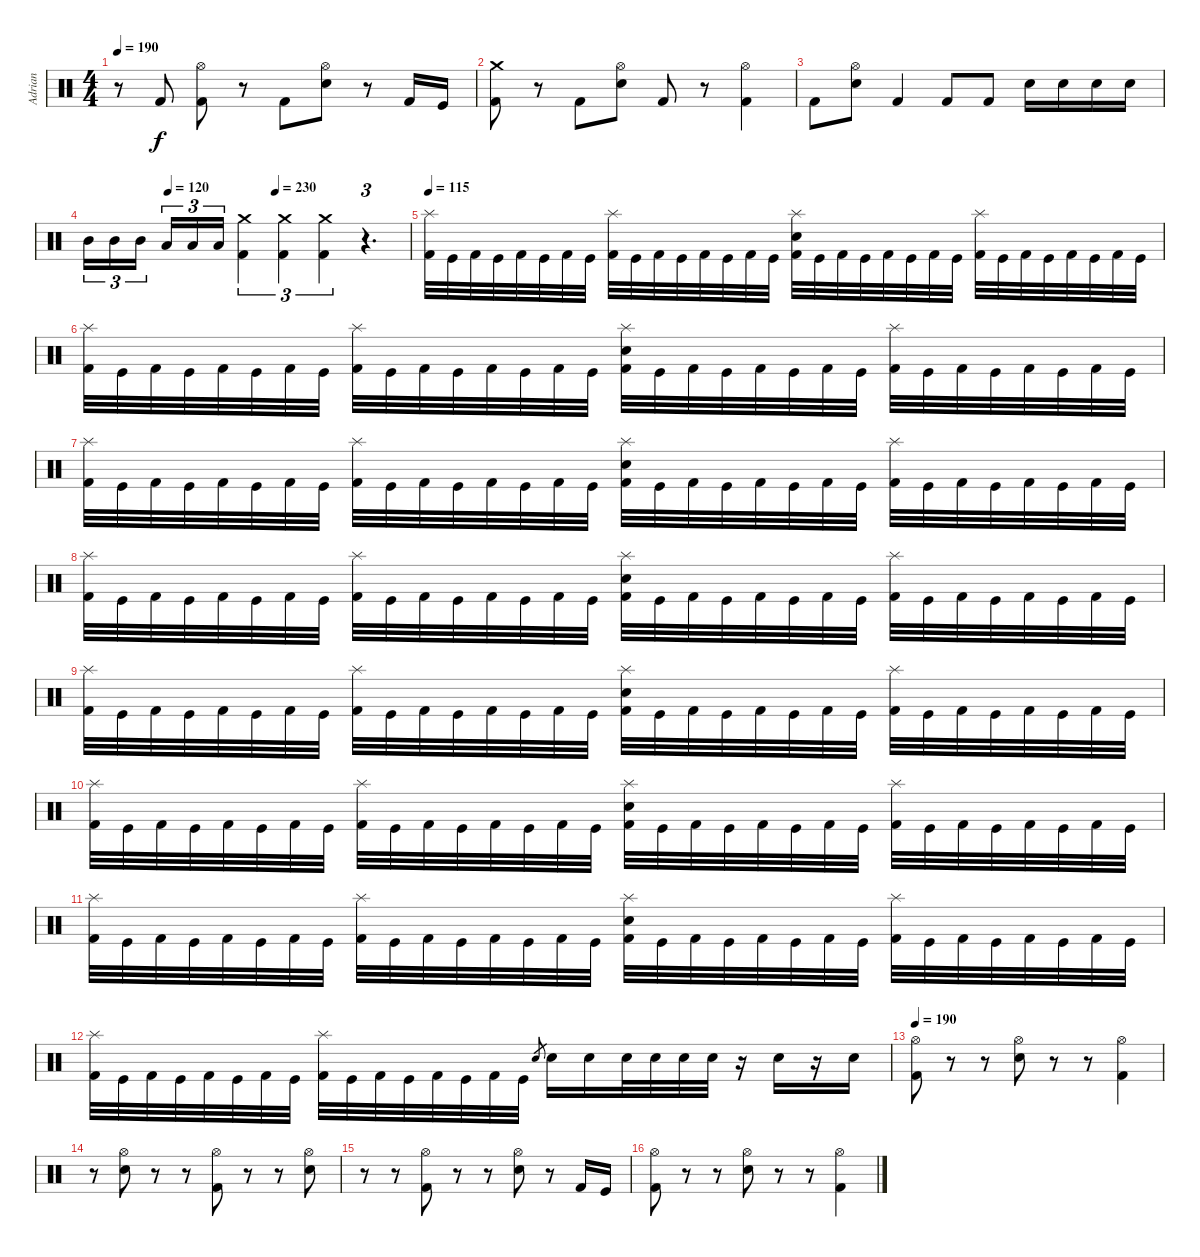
\track ("Adrian" "Adrian") {instrument percussion}
\staff {score}
\articulation defaults
\ts (4 4)
\tempo 190
\clef neutral
\ks c
r.8{dy f} "Kick (hit) 2".8 ("Hi-Hat (open)" "Kick (hit) 2").8 r.8 "Kick (hit) 2".8 ("Hi-Hat (open)" "Electric Snare (hit)").8 r.8 "Kick (hit) 2".16 "Kick (hit)".16 |
("Crash medium (hit)" "Kick (hit) 2").8 r.8 "Kick (hit) 2".8 ("Hi-Hat (open)" "Electric Snare (hit)").8 "Kick (hit) 2".8 r.8 ("Hi-Hat (open)" "Kick (hit) 2").4 |
"Kick (hit) 2".8 ("Hi-Hat (open)" "Electric Snare (hit)").8 "Kick (hit) 2".4 "Kick (hit) 2".8 "Kick (hit) 2".8 "Electric Snare (hit)".16 "Electric Snare (hit)".16 "Electric Snare (hit)".16 "Electric Snare (hit)".16 |
\tempo (120 0.25)
\tempo (230 0.5833333333333334)
"Mid Tom (hit)".16{tu (3 2)} "Mid Tom (hit)".16{tu (3 2)} "Mid Tom (hit)".16{tu (3 2)} "Low Tom (hit)".16{tu (3 2)} "Low Tom (hit)".16{tu (3 2)} "Low Tom (hit)".16{tu (3 2)} ("Crash medium (hit)" "Kick (hit) 2").4{tu (3 2)} ("Crash medium (hit)" "Kick (hit) 2").4{tu (3 2)} ("Crash medium (hit)" "Kick (hit) 2").4{tu (3 2)} r.4{d tu (3 2)} |
\tempo 115
("Splash (hit)" "Kick (hit) 2").32 "Kick (hit)".32 "Kick (hit) 2".32 "Kick (hit)".32 "Kick (hit) 2".32 "Kick (hit)".32 "Kick (hit) 2".32 "Kick (hit)".32 ("Splash (hit)" "Kick (hit) 2").32 "Kick (hit)".32 "Kick (hit) 2".32 "Kick (hit)".32 "Kick (hit) 2".32 "Kick (hit)".32 "Kick (hit) 2".32 "Kick (hit)".32 ("Splash (hit)" "Electric Snare (hit)" "Kick (hit) 2").32 "Kick (hit)".32 "Kick (hit) 2".32 "Kick (hit)".32 "Kick (hit) 2".32 "Kick (hit)".32 "Kick (hit) 2".32 "Kick (hit)".32 ("Splash (hit)" "Kick (hit) 2").32 "Kick (hit)".32 "Kick (hit) 2".32 "Kick (hit)".32 "Kick (hit) 2".32 "Kick (hit)".32 "Kick (hit) 2".32 "Kick (hit)".32 |
("Splash (hit)" "Kick (hit) 2").32 "Kick (hit)".32 "Kick (hit) 2".32 "Kick (hit)".32 "Kick (hit) 2".32 "Kick (hit)".32 "Kick (hit) 2".32 "Kick (hit)".32 ("Splash (hit)" "Kick (hit) 2").32 "Kick (hit)".32 "Kick (hit) 2".32 "Kick (hit)".32 "Kick (hit) 2".32 "Kick (hit)".32 "Kick (hit) 2".32 "Kick (hit)".32 ("Splash (hit)" "Electric Snare (hit)" "Kick (hit) 2").32 "Kick (hit)".32 "Kick (hit) 2".32 "Kick (hit)".32 "Kick (hit) 2".32 "Kick (hit)".32 "Kick (hit) 2".32 "Kick (hit)".32 ("Splash (hit)" "Kick (hit) 2").32 "Kick (hit)".32 "Kick (hit) 2".32 "Kick (hit)".32 "Kick (hit) 2".32 "Kick (hit)".32 "Kick (hit) 2".32 "Kick (hit)".32 |
("Splash (hit)" "Kick (hit) 2").32 "Kick (hit)".32 "Kick (hit) 2".32 "Kick (hit)".32 "Kick (hit) 2".32 "Kick (hit)".32 "Kick (hit) 2".32 "Kick (hit)".32 ("Splash (hit)" "Kick (hit) 2").32 "Kick (hit)".32 "Kick (hit) 2".32 "Kick (hit)".32 "Kick (hit) 2".32 "Kick (hit)".32 "Kick (hit) 2".32 "Kick (hit)".32 ("Splash (hit)" "Electric Snare (hit)" "Kick (hit) 2").32 "Kick (hit)".32 "Kick (hit) 2".32 "Kick (hit)".32 "Kick (hit) 2".32 "Kick (hit)".32 "Kick (hit) 2".32 "Kick (hit)".32 ("Splash (hit)" "Kick (hit) 2").32 "Kick (hit)".32 "Kick (hit) 2".32 "Kick (hit)".32 "Kick (hit) 2".32 "Kick (hit)".32 "Kick (hit) 2".32 "Kick (hit)".32 |
("Splash (hit)" "Kick (hit) 2").32 "Kick (hit)".32 "Kick (hit) 2".32 "Kick (hit)".32 "Kick (hit) 2".32 "Kick (hit)".32 "Kick (hit) 2".32 "Kick (hit)".32 ("Splash (hit)" "Kick (hit) 2").32 "Kick (hit)".32 "Kick (hit) 2".32 "Kick (hit)".32 "Kick (hit) 2".32 "Kick (hit)".32 "Kick (hit) 2".32 "Kick (hit)".32 ("Splash (hit)" "Electric Snare (hit)" "Kick (hit) 2").32 "Kick (hit)".32 "Kick (hit) 2".32 "Kick (hit)".32 "Kick (hit) 2".32 "Kick (hit)".32 "Kick (hit) 2".32 "Kick (hit)".32 ("Splash (hit)" "Kick (hit) 2").32 "Kick (hit)".32 "Kick (hit) 2".32 "Kick (hit)".32 "Kick (hit) 2".32 "Kick (hit)".32 "Kick (hit) 2".32 "Kick (hit)".32 |
("Splash (hit)" "Kick (hit) 2").32 "Kick (hit)".32 "Kick (hit) 2".32 "Kick (hit)".32 "Kick (hit) 2".32 "Kick (hit)".32 "Kick (hit) 2".32 "Kick (hit)".32 ("Splash (hit)" "Kick (hit) 2").32 "Kick (hit)".32 "Kick (hit) 2".32 "Kick (hit)".32 "Kick (hit) 2".32 "Kick (hit)".32 "Kick (hit) 2".32 "Kick (hit)".32 ("Splash (hit)" "Electric Snare (hit)" "Kick (hit) 2").32 "Kick (hit)".32 "Kick (hit) 2".32 "Kick (hit)".32 "Kick (hit) 2".32 "Kick (hit)".32 "Kick (hit) 2".32 "Kick (hit)".32 ("Splash (hit)" "Kick (hit) 2").32 "Kick (hit)".32 "Kick (hit) 2".32 "Kick (hit)".32 "Kick (hit) 2".32 "Kick (hit)".32 "Kick (hit) 2".32 "Kick (hit)".32 |
("Splash (hit)" "Kick (hit) 2").32 "Kick (hit)".32 "Kick (hit) 2".32 "Kick (hit)".32 "Kick (hit) 2".32 "Kick (hit)".32 "Kick (hit) 2".32 "Kick (hit)".32 ("Splash (hit)" "Kick (hit) 2").32 "Kick (hit)".32 "Kick (hit) 2".32 "Kick (hit)".32 "Kick (hit) 2".32 "Kick (hit)".32 "Kick (hit) 2".32 "Kick (hit)".32 ("Splash (hit)" "Electric Snare (hit)" "Kick (hit) 2").32 "Kick (hit)".32 "Kick (hit) 2".32 "Kick (hit)".32 "Kick (hit) 2".32 "Kick (hit)".32 "Kick (hit) 2".32 "Kick (hit)".32 ("Splash (hit)" "Kick (hit) 2").32 "Kick (hit)".32 "Kick (hit) 2".32 "Kick (hit)".32 "Kick (hit) 2".32 "Kick (hit)".32 "Kick (hit) 2".32 "Kick (hit)".32 |
("Splash (hit)" "Kick (hit) 2").32 "Kick (hit)".32 "Kick (hit) 2".32 "Kick (hit)".32 "Kick (hit) 2".32 "Kick (hit)".32 "Kick (hit) 2".32 "Kick (hit)".32 ("Splash (hit)" "Kick (hit) 2").32 "Kick (hit)".32 "Kick (hit) 2".32 "Kick (hit)".32 "Kick (hit) 2".32 "Kick (hit)".32 "Kick (hit) 2".32 "Kick (hit)".32 ("Splash (hit)" "Electric Snare (hit)" "Kick (hit) 2").32 "Kick (hit)".32 "Kick (hit) 2".32 "Kick (hit)".32 "Kick (hit) 2".32 "Kick (hit)".32 "Kick (hit) 2".32 "Kick (hit)".32 ("Splash (hit)" "Kick (hit) 2").32 "Kick (hit)".32 "Kick (hit) 2".32 "Kick (hit)".32 "Kick (hit) 2".32 "Kick (hit)".32 "Kick (hit) 2".32 "Kick (hit)".32 |
("Splash (hit)" "Kick (hit) 2").32 "Kick (hit)".32 "Kick (hit) 2".32 "Kick (hit)".32 "Kick (hit) 2".32 "Kick (hit)".32 "Kick (hit) 2".32 "Kick (hit)".32 ("Splash (hit)" "Kick (hit) 2").32 "Kick (hit)".32 "Kick (hit) 2".32 "Kick (hit)".32 "Kick (hit) 2".32 "Kick (hit)".32 "Kick (hit) 2".32 "Kick (hit)".32 "Electric Snare (hit)".8{gr} "Electric Snare (hit)".16 "Electric Snare (hit)".16 "Electric Snare (hit)".32 "Electric Snare (hit)".32 "Electric Snare (hit)".32 "Electric Snare (hit)".32 r.16 "Electric Snare (hit)".16 r.16 "Electric Snare (hit)".16 |
\tempo 190
("Hi-Hat (open)" "Kick (hit) 2").8 r.8 r.8 ("Hi-Hat (open)" "Electric Snare (hit)").8 r.8 r.8 ("Hi-Hat (open)" "Kick (hit) 2").4 |
r.8 ("Hi-Hat (open)" "Electric Snare (hit)").8 r.8 r.8 ("Hi-Hat (open)" "Kick (hit) 2").8 r.8 r.8 ("Hi-Hat (open)" "Electric Snare (hit)").8 |
r.8 r.8 ("Hi-Hat (open)" "Kick (hit) 2").8 r.8 r.8 ("Hi-Hat (open)" "Electric Snare (hit)").8 r.8 "Kick (hit) 2".16 "Kick (hit)".16 |
("Hi-Hat (open)" "Kick (hit) 2").8 r.8 r.8 ("Hi-Hat (open)" "Electric Snare (hit)").8 r.8 r.8 ("Hi-Hat (open)" "Kick (hit) 2").4
